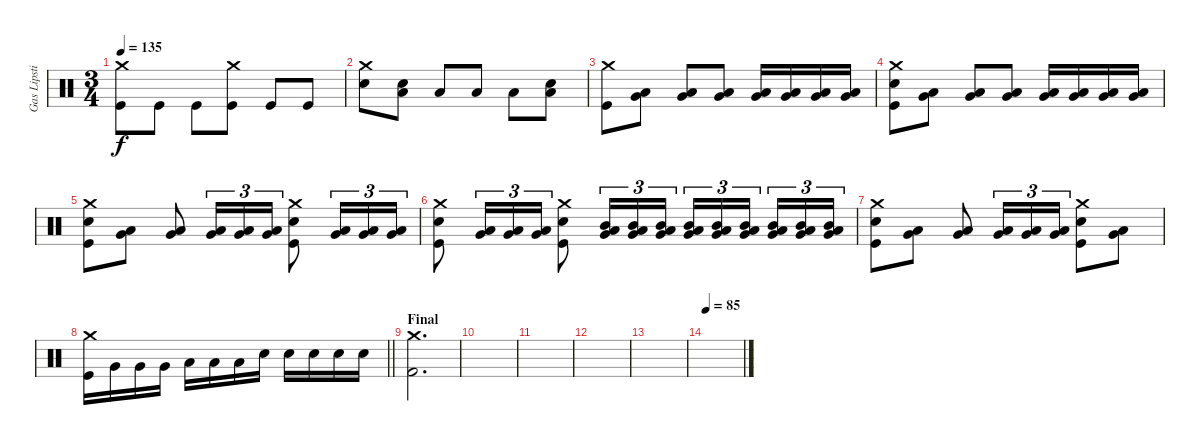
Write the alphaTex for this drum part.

\track ("Gas Lipstick" "Gas Lipsti") {instrument percussion}
\staff {score}
\articulation defaults
\ts (3 4)
\tempo 135
\clef neutral
\ks c
("Crash medium (hit)" "Kick (hit)").8{dy f} "Kick (hit)".8 "Kick (hit)".8 ("Crash medium (hit)" "Kick (hit)").8 "Kick (hit)".8 "Kick (hit)".8 |
("Crash medium (hit)" "Snare (hit) 2").8 ("Low Tom (hit)" "Snare (hit) 2").8 "Low Tom (hit)".8 "Low Tom (hit)".8 "Low Tom (hit)".8 ("Low Tom (hit)" "Snare (hit) 2").8 |
("Crash medium (hit)" "Kick (hit)").8 ("Low Tom (hit)" "Very Low Tom (hit)").8 ("Low Tom (hit)" "Very Low Tom (hit)").8 ("Low Tom (hit)" "Very Low Tom (hit)").8 ("Low Tom (hit)" "Very Low Tom (hit)").16 ("Low Tom (hit)" "Very Low Tom (hit)").16 ("Low Tom (hit)" "Very Low Tom (hit)").16 ("Low Tom (hit)" "Very Low Tom (hit)").16 |
("Crash medium (hit)" "Kick (hit)" "Snare (hit) 2").8 ("Low Tom (hit)" "Very Low Tom (hit)").8 ("Low Tom (hit)" "Very Low Tom (hit)").8 ("Low Tom (hit)" "Very Low Tom (hit)").8 ("Low Tom (hit)" "Very Low Tom (hit)").16 ("Low Tom (hit)" "Very Low Tom (hit)").16 ("Low Tom (hit)" "Very Low Tom (hit)").16 ("Low Tom (hit)" "Very Low Tom (hit)").16 |
("Crash medium (hit)" "Kick (hit)" "Snare (hit) 2").8 ("Low Tom (hit)" "Very Low Tom (hit)").8 ("Low Tom (hit)" "Very Low Tom (hit)").8 ("Low Tom (hit)" "Very Low Tom (hit)").16{tu (3 2)} ("Low Tom (hit)" "Very Low Tom (hit)").16{tu (3 2)} ("Low Tom (hit)" "Very Low Tom (hit)").16{tu (3 2)} ("Crash medium (hit)" "Kick (hit)" "Snare (hit) 2").8 ("Low Tom (hit)" "Very Low Tom (hit)").16{tu (3 2)} ("Low Tom (hit)" "Very Low Tom (hit)").16{tu (3 2)} ("Low Tom (hit)" "Very Low Tom (hit)").16{tu (3 2)} |
("Crash medium (hit)" "Kick (hit)" "Snare (hit) 2").8 ("Low Tom (hit)" "Very Low Tom (hit)").16{tu (3 2)} ("Low Tom (hit)" "Very Low Tom (hit)").16{tu (3 2)} ("Low Tom (hit)" "Very Low Tom (hit)").16{tu (3 2)} ("Crash medium (hit)" "Kick (hit)" "Snare (hit) 2").8 ("Mid Tom (hit)" "Low Tom (hit)" "Very Low Tom (hit)").16{tu (3 2)} ("Mid Tom (hit)" "Low Tom (hit)" "Very Low Tom (hit)").16{tu (3 2)} ("Mid Tom (hit)" "Low Tom (hit)" "Very Low Tom (hit)").16{tu (3 2)} ("Mid Tom (hit)" "Low Tom (hit)" "Very Low Tom (hit)").16{tu (3 2)} ("Mid Tom (hit)" "Low Tom (hit)" "Very Low Tom (hit)").16{tu (3 2)} ("Mid Tom (hit)" "Low Tom (hit)" "Very Low Tom (hit)").16{tu (3 2) beam splitsecondary} ("Mid Tom (hit)" "Low Tom (hit)" "Very Low Tom (hit)").16{tu (3 2)} ("Mid Tom (hit)" "Low Tom (hit)" "Very Low Tom (hit)").16{tu (3 2)} ("Mid Tom (hit)" "Low Tom (hit)" "Very Low Tom (hit)").16{tu (3 2)} |
("Crash medium (hit)" "Kick (hit)" "Snare (hit) 2").8 ("Low Tom (hit)" "Very Low Tom (hit)").8 ("Low Tom (hit)" "Very Low Tom (hit)").8 ("Low Tom (hit)" "Very Low Tom (hit)").16{tu (3 2)} ("Low Tom (hit)" "Very Low Tom (hit)").16{tu (3 2)} ("Low Tom (hit)" "Very Low Tom (hit)").16{tu (3 2)} ("Crash medium (hit)" "Kick (hit)" "Snare (hit) 2").8 ("Low Tom (hit)" "Very Low Tom (hit)").8 |
\barLineRight lightlight
("Crash medium (hit)" "Kick (hit)").16 "Very Low Tom (hit)".16 "Very Low Tom (hit)".16 "Very Low Tom (hit)".16 "Low Tom (hit)".16 "Low Tom (hit)".16 "Low Tom (hit)".16 "Snare (hit) 2".16 "Snare (hit) 2".16 "Snare (hit) 2".16 "Snare (hit) 2".16 "Snare (hit) 2".16 |
\section ("" "Final")
("Crash medium (hit)" "Kick (hit) 2").2{d} |
|
|
|
|
\tempo 85
